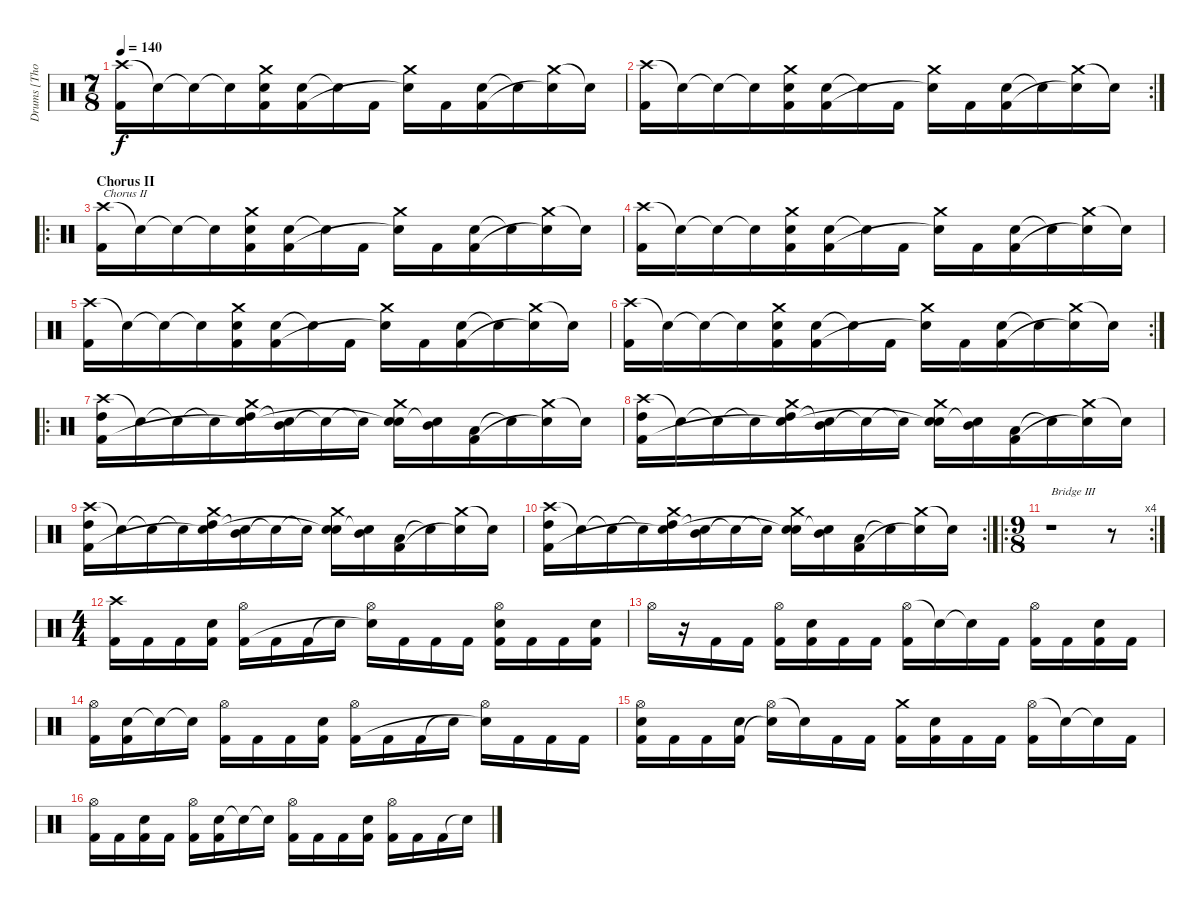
\track ("Drums [Thomas Haake]" "Drums [Tho") {instrument percussion}
\staff {score}
\articulation defaults
\ts (7 8)
\tempo 140
\clef neutral
\ks c
("Crash high (hit)" "Kick (hit) 2").16{dy f} "Snare (hit)"{t}.16 "Snare (hit)"{t}.16 "Snare (hit)"{t}.16 ("Crash medium (hit)" "Electric Snare (hit)" "Kick (hit) 2").16 ("Electric Snare (hit)" "Kick (hit) 2").16 "Snare (hit)"{t}.16 "Kick (hit) 2".16 ("Crash medium (hit)" "Snare (hit)"{t}).16 "Kick (hit) 2".16 ("Electric Snare (hit)" "Kick (hit) 2").16 "Snare (hit)"{t}.16 ("Crash medium (hit)" "Snare (hit)"{t}).16 "Snare (hit)"{t}.16 |
\rc 2
("Crash high (hit)" "Kick (hit) 2").16 "Snare (hit)"{t}.16 "Snare (hit)"{t}.16 "Snare (hit)"{t}.16 ("Crash medium (hit)" "Electric Snare (hit)" "Kick (hit) 2").16 ("Electric Snare (hit)" "Kick (hit) 2").16 "Snare (hit)"{t}.16 "Kick (hit) 2".16 ("Crash medium (hit)" "Snare (hit)"{t}).16 "Kick (hit) 2".16 ("Electric Snare (hit)" "Kick (hit) 2").16 "Snare (hit)"{t}.16 ("Crash medium (hit)" "Snare (hit)"{t}).16 "Snare (hit)"{t}.16 |
\ro
\section ("" "Chorus II")
("Crash high (hit)" "Kick (hit) 2").16{txt "Chorus II"} "Snare (hit)"{t}.16 "Snare (hit)"{t}.16 "Snare (hit)"{t}.16 ("Crash medium (hit)" "Electric Snare (hit)" "Kick (hit) 2").16 ("Electric Snare (hit)" "Kick (hit) 2").16 "Snare (hit)"{t}.16 "Kick (hit) 2".16 ("Crash medium (hit)" "Snare (hit)"{t}).16 "Kick (hit) 2".16 ("Electric Snare (hit)" "Kick (hit) 2").16 "Snare (hit)"{t}.16 ("Crash medium (hit)" "Snare (hit)"{t}).16 "Snare (hit)"{t}.16 |
("Crash high (hit)" "Kick (hit) 2").16 "Snare (hit)"{t}.16 "Snare (hit)"{t}.16 "Snare (hit)"{t}.16 ("Crash medium (hit)" "Electric Snare (hit)" "Kick (hit) 2").16 ("Electric Snare (hit)" "Kick (hit) 2").16 "Snare (hit)"{t}.16 "Kick (hit) 2".16 ("Crash medium (hit)" "Snare (hit)"{t}).16 "Kick (hit) 2".16 ("Electric Snare (hit)" "Kick (hit) 2").16 "Snare (hit)"{t}.16 ("Crash medium (hit)" "Snare (hit)"{t}).16 "Snare (hit)"{t}.16 |
("Crash high (hit)" "Kick (hit) 2").16 "Snare (hit)"{t}.16 "Snare (hit)"{t}.16 "Snare (hit)"{t}.16 ("Crash medium (hit)" "Electric Snare (hit)" "Kick (hit) 2").16 ("Electric Snare (hit)" "Kick (hit) 2").16 "Snare (hit)"{t}.16 "Kick (hit) 2".16 ("Crash medium (hit)" "Snare (hit)"{t}).16 "Kick (hit) 2".16 ("Electric Snare (hit)" "Kick (hit) 2").16 "Snare (hit)"{t}.16 ("Crash medium (hit)" "Snare (hit)"{t}).16 "Snare (hit)"{t}.16 |
\rc 2
("Crash high (hit)" "Kick (hit) 2").16 "Snare (hit)"{t}.16 "Snare (hit)"{t}.16 "Snare (hit)"{t}.16 ("Crash medium (hit)" "Electric Snare (hit)" "Kick (hit) 2").16 ("Electric Snare (hit)" "Kick (hit) 2").16 "Snare (hit)"{t}.16 "Kick (hit) 2".16 ("Crash medium (hit)" "Snare (hit)"{t}).16 "Kick (hit) 2".16 ("Electric Snare (hit)" "Kick (hit) 2").16 "Snare (hit)"{t}.16 ("Crash medium (hit)" "Snare (hit)"{t}).16 "Snare (hit)"{t}.16 |
\ro
("Crash high (hit)" "High Tom (hit)" "Kick (hit) 2").16 "Snare (hit)"{t}.16 "Snare (hit)"{t}.16 "Snare (hit)"{t}.16 ("Crash medium (hit)" "High Tom (hit)" "Snare (hit)"{t}).16 ("Mid Tom (hit)" "Snare (hit)"{t}).16 "Snare (hit)"{t}.16 "Snare (hit)"{t}.16 ("Crash medium (hit)" "Electric Snare (hit)" "Snare (hit)"{t}).16 ("Mid Tom (hit)" "Snare (hit)"{t}).16 ("Low Tom (hit)" "Kick (hit) 2").16 "Snare (hit)"{t}.16 ("Crash medium (hit)" "Snare (hit)"{t}).16 "Snare (hit)"{t}.16 |
("Crash high (hit)" "High Tom (hit)" "Kick (hit) 2").16 "Snare (hit)"{t}.16 "Snare (hit)"{t}.16 "Snare (hit)"{t}.16 ("Crash medium (hit)" "High Tom (hit)" "Snare (hit)"{t}).16 ("Mid Tom (hit)" "Snare (hit)"{t}).16 "Snare (hit)"{t}.16 "Snare (hit)"{t}.16 ("Crash medium (hit)" "Electric Snare (hit)" "Snare (hit)"{t}).16 ("Mid Tom (hit)" "Snare (hit)"{t}).16 ("Low Tom (hit)" "Kick (hit) 2").16 "Snare (hit)"{t}.16 ("Crash medium (hit)" "Snare (hit)"{t}).16 "Snare (hit)"{t}.16 |
("Crash high (hit)" "High Tom (hit)" "Kick (hit) 2").16 "Snare (hit)"{t}.16 "Snare (hit)"{t}.16 "Snare (hit)"{t}.16 ("Crash medium (hit)" "High Tom (hit)" "Snare (hit)"{t}).16 ("Mid Tom (hit)" "Snare (hit)"{t}).16 "Snare (hit)"{t}.16 "Snare (hit)"{t}.16 ("Crash medium (hit)" "Electric Snare (hit)" "Snare (hit)"{t}).16 ("Mid Tom (hit)" "Snare (hit)"{t}).16 ("Low Tom (hit)" "Kick (hit) 2").16 "Snare (hit)"{t}.16 ("Crash medium (hit)" "Snare (hit)"{t}).16 "Snare (hit)"{t}.16 |
\rc 2
("Crash high (hit)" "High Tom (hit)" "Kick (hit) 2").16 "Snare (hit)"{t}.16 "Snare (hit)"{t}.16 "Snare (hit)"{t}.16 ("Crash medium (hit)" "High Tom (hit)" "Snare (hit)"{t}).16 ("Mid Tom (hit)" "Snare (hit)"{t}).16 "Snare (hit)"{t}.16 "Snare (hit)"{t}.16 ("Crash medium (hit)" "Electric Snare (hit)" "Snare (hit)"{t}).16 ("Mid Tom (hit)" "Snare (hit)"{t}).16 ("Low Tom (hit)" "Kick (hit) 2").16 "Snare (hit)"{t}.16 ("Crash medium (hit)" "Snare (hit)"{t}).16 "Snare (hit)"{t}.16 |
\ro
\rc 4
\ts (9 8)
r.1{txt "Bridge III"} r.8 |
\ts (4 4)
("Crash high (hit)" "Kick (hit) 2").16 "Kick (hit) 2".16 "Kick (hit) 2".16 ("Electric Snare (hit)" "Kick (hit) 2").16 ("Hi-Hat (open)" "Kick (hit) 2").16 "Kick (hit) 2".16 "Kick (hit) 2".16 "Snare (hit)"{t}.16 ("Hi-Hat (open)" "Snare (hit)"{t}).16 "Kick (hit) 2".16 "Kick (hit) 2".16 "Kick (hit) 2".16 ("Hi-Hat (open)" "Electric Snare (hit)" "Kick (hit) 2").16 "Kick (hit) 2".16 "Kick (hit) 2".16 ("Electric Snare (hit)" "Kick (hit) 2").16 |
"Hi-Hat (open)".16 r.16 "Kick (hit) 2".16 "Kick (hit) 2".16 ("Hi-Hat (open)" "Kick (hit) 2").16 ("Electric Snare (hit)" "Kick (hit) 2").16 "Kick (hit) 2".16 "Kick (hit) 2".16 ("Hi-Hat (open)" "Kick (hit) 2").16 "Snare (hit)"{t}.16 "Snare (hit)"{t}.16 "Kick (hit) 2".16 ("Hi-Hat (open)" "Kick (hit) 2").16 "Kick (hit) 2".16 ("Electric Snare (hit)" "Kick (hit) 2").16 "Kick (hit) 2".16 |
("Hi-Hat (open)" "Kick (hit) 2").16 ("Electric Snare (hit)" "Kick (hit) 2").16 "Snare (hit)"{t}.16 "Snare (hit)"{t}.16 ("Hi-Hat (open)" "Kick (hit) 2").16 "Kick (hit) 2".16 "Kick (hit) 2".16 ("Electric Snare (hit)" "Kick (hit) 2").16 ("Hi-Hat (open)" "Kick (hit) 2").16 "Kick (hit) 2".16 "Kick (hit) 2".16 "Snare (hit)"{t}.16 ("Hi-Hat (open)" "Snare (hit)"{t}).16 "Kick (hit) 2".16 "Kick (hit) 2".16 "Kick (hit) 2".16 |
("Hi-Hat (open)" "Electric Snare (hit)" "Kick (hit) 2").16 "Kick (hit) 2".16 "Kick (hit) 2".16 ("Electric Snare (hit)" "Kick (hit) 2").16 ("Hi-Hat (open)" "Snare (hit)"{t}).16 "Snare (hit)"{t}.16 "Kick (hit) 2".16 "Kick (hit) 2".16 ("Crash medium (hit)" "Kick (hit) 2").16 ("Electric Snare (hit)" "Kick (hit) 2").16 "Kick (hit) 2".16 "Kick (hit) 2".16 ("Hi-Hat (open)" "Kick (hit) 2").16 "Snare (hit)"{t}.16 "Snare (hit)"{t}.16 "Kick (hit) 2".16 |
("Hi-Hat (open)" "Kick (hit) 2").16 "Kick (hit) 2".16 ("Electric Snare (hit)" "Kick (hit) 2").16 "Kick (hit) 2".16 ("Hi-Hat (open)" "Kick (hit) 2").16 ("Electric Snare (hit)" "Kick (hit) 2").16 "Snare (hit)"{t}.16 "Snare (hit)"{t}.16 ("Hi-Hat (open)" "Kick (hit) 2").16 "Kick (hit) 2".16 "Kick (hit) 2".16 ("Electric Snare (hit)" "Kick (hit) 2").16 ("Hi-Hat (open)" "Kick (hit) 2").16 "Kick (hit) 2".16 "Kick (hit) 2".16 "Snare (hit)"{t}.16
